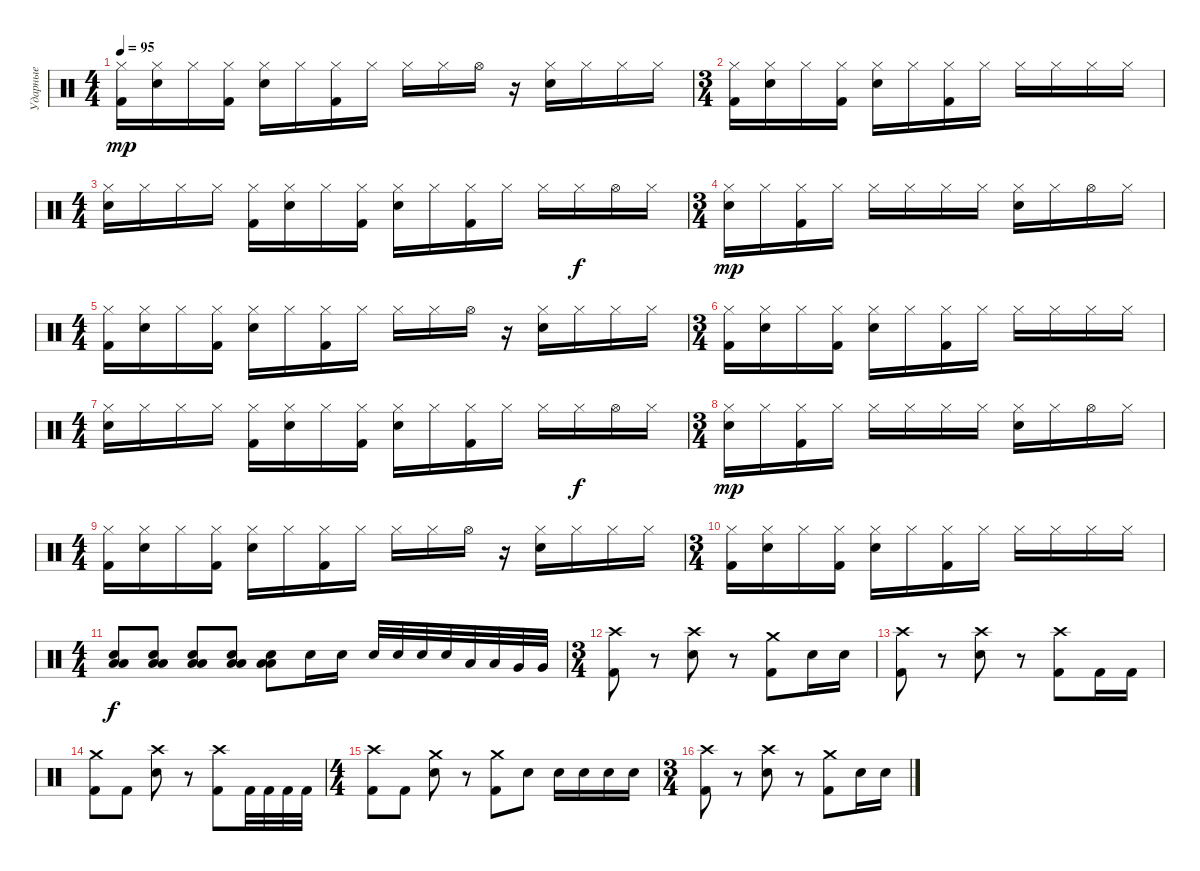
\track ("Ударные" "Ударные") {instrument percussion}
\staff {score}
\articulation defaults
\ts (4 4)
\tempo 95
\clef neutral
\ks c
("Hi-Hat (closed)" "Kick (hit) 2").16{dy mp} ("Hi-Hat (closed)" "Electric Snare (hit)").16 "Hi-Hat (closed)".16 ("Hi-Hat (closed)" "Kick (hit) 2").16 ("Hi-Hat (closed)" "Electric Snare (hit)").16 "Hi-Hat (closed)".16 ("Hi-Hat (closed)" "Kick (hit) 2").16 "Hi-Hat (closed)".16 "Hi-Hat (closed)".16 "Hi-Hat (closed)".16 "Hi-Hat (open)".16 r.16 ("Hi-Hat (closed)" "Electric Snare (hit)").16 "Hi-Hat (closed)".16 "Hi-Hat (closed)".16 "Hi-Hat (closed)".16 |
\ts (3 4)
("Hi-Hat (closed)" "Kick (hit) 2").16 ("Hi-Hat (closed)" "Electric Snare (hit)").16 "Hi-Hat (closed)".16 ("Hi-Hat (closed)" "Kick (hit) 2").16 ("Hi-Hat (closed)" "Electric Snare (hit)").16 "Hi-Hat (closed)".16 ("Hi-Hat (closed)" "Kick (hit) 2").16 "Hi-Hat (closed)".16 "Hi-Hat (closed)".16 "Hi-Hat (closed)".16 "Hi-Hat (closed)".16 "Hi-Hat (closed)".16 |
\ts (4 4)
("Hi-Hat (closed)" "Electric Snare (hit)").16 "Hi-Hat (closed)".16 "Hi-Hat (closed)".16 "Hi-Hat (closed)".16 ("Hi-Hat (closed)" "Kick (hit) 2").16 ("Hi-Hat (closed)" "Electric Snare (hit)").16 "Hi-Hat (closed)".16 ("Hi-Hat (closed)" "Kick (hit) 2").16 ("Hi-Hat (closed)" "Electric Snare (hit)").16 "Hi-Hat (closed)".16 ("Hi-Hat (closed)" "Kick (hit) 2").16 "Hi-Hat (closed)".16 "Hi-Hat (closed)".16 "Hi-Hat (closed)".16{dy f} "Hi-Hat (open)".16 "Hi-Hat (closed)".16 |
\ts (3 4)
("Hi-Hat (closed)" "Electric Snare (hit)").16{dy mp} "Hi-Hat (closed)".16 ("Hi-Hat (closed)" "Kick (hit) 2").16 "Hi-Hat (closed)".16 "Hi-Hat (closed)".16 "Hi-Hat (closed)".16 "Hi-Hat (closed)".16 "Hi-Hat (closed)".16 ("Hi-Hat (closed)" "Electric Snare (hit)").16 "Hi-Hat (closed)".16 "Hi-Hat (open)".16 "Hi-Hat (closed)".16 |
\ts (4 4)
("Hi-Hat (closed)" "Kick (hit) 2").16 ("Hi-Hat (closed)" "Electric Snare (hit)").16 "Hi-Hat (closed)".16 ("Hi-Hat (closed)" "Kick (hit) 2").16 ("Hi-Hat (closed)" "Electric Snare (hit)").16 "Hi-Hat (closed)".16 ("Hi-Hat (closed)" "Kick (hit) 2").16 "Hi-Hat (closed)".16 "Hi-Hat (closed)".16 "Hi-Hat (closed)".16 "Hi-Hat (open)".16 r.16 ("Hi-Hat (closed)" "Electric Snare (hit)").16 "Hi-Hat (closed)".16 "Hi-Hat (closed)".16 "Hi-Hat (closed)".16 |
\ts (3 4)
("Hi-Hat (closed)" "Kick (hit) 2").16 ("Hi-Hat (closed)" "Electric Snare (hit)").16 "Hi-Hat (closed)".16 ("Hi-Hat (closed)" "Kick (hit) 2").16 ("Hi-Hat (closed)" "Electric Snare (hit)").16 "Hi-Hat (closed)".16 ("Hi-Hat (closed)" "Kick (hit) 2").16 "Hi-Hat (closed)".16 "Hi-Hat (closed)".16 "Hi-Hat (closed)".16 "Hi-Hat (closed)".16 "Hi-Hat (closed)".16 |
\ts (4 4)
("Hi-Hat (closed)" "Electric Snare (hit)").16 "Hi-Hat (closed)".16 "Hi-Hat (closed)".16 "Hi-Hat (closed)".16 ("Hi-Hat (closed)" "Kick (hit) 2").16 ("Hi-Hat (closed)" "Electric Snare (hit)").16 "Hi-Hat (closed)".16 ("Hi-Hat (closed)" "Kick (hit) 2").16 ("Hi-Hat (closed)" "Electric Snare (hit)").16 "Hi-Hat (closed)".16 ("Hi-Hat (closed)" "Kick (hit) 2").16 "Hi-Hat (closed)".16 "Hi-Hat (closed)".16 "Hi-Hat (closed)".16{dy f} "Hi-Hat (open)".16 "Hi-Hat (closed)".16 |
\ts (3 4)
("Hi-Hat (closed)" "Electric Snare (hit)").16{dy mp} "Hi-Hat (closed)".16 ("Hi-Hat (closed)" "Kick (hit) 2").16 "Hi-Hat (closed)".16 "Hi-Hat (closed)".16 "Hi-Hat (closed)".16 "Hi-Hat (closed)".16 "Hi-Hat (closed)".16 ("Hi-Hat (closed)" "Electric Snare (hit)").16 "Hi-Hat (closed)".16 "Hi-Hat (open)".16 "Hi-Hat (closed)".16 |
\ts (4 4)
("Hi-Hat (closed)" "Kick (hit) 2").16 ("Hi-Hat (closed)" "Electric Snare (hit)").16 "Hi-Hat (closed)".16 ("Hi-Hat (closed)" "Kick (hit) 2").16 ("Hi-Hat (closed)" "Electric Snare (hit)").16 "Hi-Hat (closed)".16 ("Hi-Hat (closed)" "Kick (hit) 2").16 "Hi-Hat (closed)".16 "Hi-Hat (closed)".16 "Hi-Hat (closed)".16 "Hi-Hat (open)".16 r.16 ("Hi-Hat (closed)" "Electric Snare (hit)").16 "Hi-Hat (closed)".16 "Hi-Hat (closed)".16 "Hi-Hat (closed)".16 |
\ts (3 4)
("Hi-Hat (closed)" "Kick (hit) 2").16 ("Hi-Hat (closed)" "Electric Snare (hit)").16 "Hi-Hat (closed)".16 ("Hi-Hat (closed)" "Kick (hit) 2").16 ("Hi-Hat (closed)" "Electric Snare (hit)").16 "Hi-Hat (closed)".16 ("Hi-Hat (closed)" "Kick (hit) 2").16 "Hi-Hat (closed)".16 "Hi-Hat (closed)".16 "Hi-Hat (closed)".16 "Hi-Hat (closed)".16 "Hi-Hat (closed)".16{volume 7} |
\ts (4 4)
("Low Tom (hit)" "Snare (hit) 2" "Low Floor Tom (hit)").8{dy f volume 16} ("Low Tom (hit)" "Snare (hit) 2" "Low Floor Tom (hit)").8 ("Low Tom (hit)" "Snare (hit) 2" "Low Floor Tom (hit)").8 ("Low Tom (hit)" "Snare (hit) 2" "Low Floor Tom (hit)").8 ("Low Tom (hit)" "Snare (hit) 2" "Low Floor Tom (hit)").8 "Snare (hit) 2".16 "Snare (hit) 2".16 "Snare (hit) 2".32 "Snare (hit) 2".32 "Snare (hit) 2".32 "Snare (hit) 2".32 "Low Tom (hit)".32 "Low Tom (hit)".32 "Very Low Tom (hit)".32 "Very Low Tom (hit)".32 |
\ts (3 4)
("Crash high (hit)" "Kick (hit) 2").8{volume 16} r.8 ("Crash high (hit)" "Snare (hit) 2").8 r.8 ("Crash medium (hit)" "Kick (hit) 2").8 "Snare (hit) 2".16 "Snare (hit) 2".16 |
("Crash high (hit)" "Kick (hit) 2").8 r.8 ("Crash high (hit)" "Snare (hit) 2").8 r.8 ("Crash high (hit)" "Kick (hit) 2").8 "Kick (hit) 2".16 "Kick (hit) 2".16 |
("Crash medium (hit)" "Kick (hit) 2").8 "Kick (hit) 2".8 ("Crash high (hit)" "Snare (hit) 2").8 r.8 ("Crash high (hit)" "Kick (hit) 2").8 "Kick (hit) 2".32 "Kick (hit) 2".32 "Kick (hit) 2".32 "Kick (hit) 2".32 |
\ts (4 4)
("Crash high (hit)" "Kick (hit) 2").8 "Kick (hit) 2".8 ("Crash medium (hit)" "Snare (hit) 2").8 r.8 ("Crash medium (hit)" "Kick (hit) 2").8 "Snare (hit) 2".8 "Snare (hit) 2".16 "Snare (hit) 2".16 "Snare (hit) 2".16 "Snare (hit) 2".16 |
\ts (3 4)
("Crash high (hit)" "Kick (hit) 2").8{volume 16} r.8 ("Crash high (hit)" "Snare (hit) 2").8 r.8 ("Crash medium (hit)" "Kick (hit) 2").8 "Snare (hit) 2".16 "Snare (hit) 2".16
